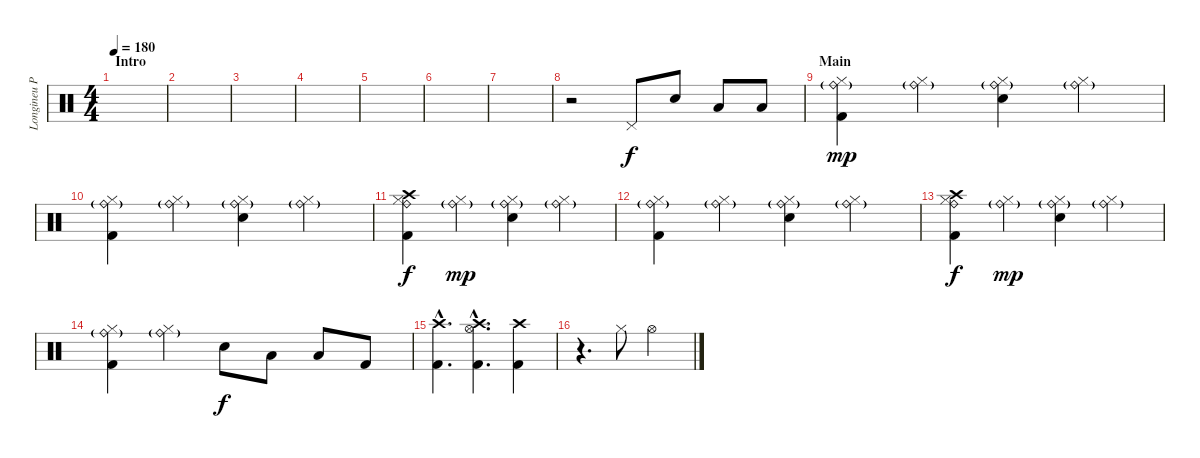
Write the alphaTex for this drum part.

\track ("Longineu Parsons III (Drums)" "Longineu P") {instrument percussion}
\staff {score}
\articulation defaults
\ts (4 4)
\section ("" "Intro")
\tempo 180
\clef neutral
\ks c
|
|
|
|
|
|
|
r.2 "Pedal Hi-Hat (hit)".8 "Snare (hit) 2".8 "Low Tom (hit)".8 "Low Floor Tom (hit)".8 |
\section ("" "Main")
("Ride (bell)"{g} "Kick (hit) 2" "Hi-Hat (closed)").4{dy mp} ("Ride (bell)"{g} "Hi-Hat (closed)").4 ("Ride (bell)"{g} "Snare (hit) 2" "Hi-Hat (closed)").4 ("Ride (bell)"{g} "Hi-Hat (closed)").4 |
("Ride (bell)"{g} "Kick (hit) 2" "Hi-Hat (closed)").4 ("Ride (bell)"{g} "Hi-Hat (closed)").4 ("Ride (bell)"{g} "Snare (hit) 2" "Hi-Hat (closed)").4 ("Ride (bell)"{g} "Hi-Hat (closed)").4 |
("Ride (bell)" "Crash high (hit)" "Kick (hit) 2" "Hi-Hat (closed)").4{dy f} ("Ride (bell)"{g} "Hi-Hat (closed)").4{dy mp} ("Ride (bell)"{g} "Snare (hit) 2" "Hi-Hat (closed)").4 ("Ride (bell)"{g} "Hi-Hat (closed)").4 |
("Ride (bell)"{g} "Kick (hit) 2" "Hi-Hat (closed)").4 ("Ride (bell)"{g} "Hi-Hat (closed)").4 ("Ride (bell)"{g} "Snare (hit) 2" "Hi-Hat (closed)").4 ("Ride (bell)"{g} "Hi-Hat (closed)").4 |
("Ride (bell)" "Crash high (hit)" "Kick (hit) 2" "Hi-Hat (closed)").4{dy f} ("Ride (bell)"{g} "Hi-Hat (closed)").4{dy mp} ("Ride (bell)"{g} "Snare (hit) 2" "Hi-Hat (closed)").4 ("Ride (bell)"{g} "Hi-Hat (closed)").4 |
("Ride (bell)"{g} "Kick (hit) 2" "Hi-Hat (closed)").4 ("Ride (bell)"{g} "Hi-Hat (closed)").4 "Snare (hit) 2".8{dy f} "Low Tom (hit)".8 "Low Floor Tom (hit)".8 "Kick (hit) 2".8 |
("Kick (hit) 2"{hac} "Crash high (hit)"{hac}).4{d} ("Hi-Hat (open)"{hac} "Kick (hit) 2"{hac} "Crash high (hit)"{hac}).4{d} ("Kick (hit) 2" "Crash high (hit)").4 |
r.4{d} "Hi-Hat (closed)".8 "Hi-Hat (open)".2
